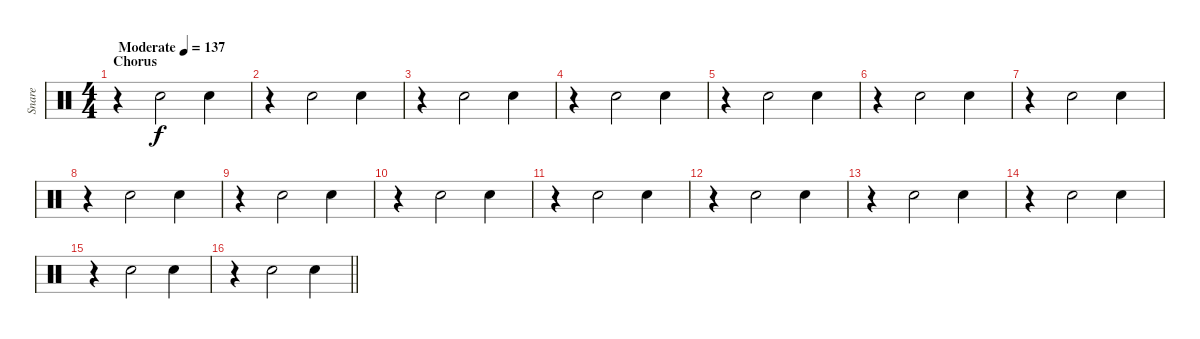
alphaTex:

\track ("Snare" "Snare") {instrument percussion}
\staff {score}
\articulation defaults
\ts (4 4)
\section ("" "Chorus")
\tempo (137 "Moderate")
\clef neutral
\ks c
r.4{dy f} "Electric Snare (hit)".2 "Electric Snare (hit)".4 |
r.4 "Electric Snare (hit)".2 "Electric Snare (hit)".4 |
r.4 "Electric Snare (hit)".2 "Electric Snare (hit)".4 |
r.4 "Electric Snare (hit)".2 "Electric Snare (hit)".4 |
r.4 "Electric Snare (hit)".2 "Electric Snare (hit)".4 |
r.4 "Electric Snare (hit)".2 "Electric Snare (hit)".4 |
r.4 "Electric Snare (hit)".2 "Electric Snare (hit)".4 |
r.4 "Electric Snare (hit)".2 "Electric Snare (hit)".4 |
r.4 "Electric Snare (hit)".2 "Electric Snare (hit)".4 |
r.4 "Electric Snare (hit)".2 "Electric Snare (hit)".4 |
r.4 "Electric Snare (hit)".2 "Electric Snare (hit)".4 |
r.4 "Electric Snare (hit)".2 "Electric Snare (hit)".4 |
r.4 "Electric Snare (hit)".2 "Electric Snare (hit)".4 |
r.4 "Electric Snare (hit)".2 "Electric Snare (hit)".4 |
r.4 "Electric Snare (hit)".2 "Electric Snare (hit)".4 |
\barLineRight lightlight
r.4 "Electric Snare (hit)".2 "Electric Snare (hit)".4
